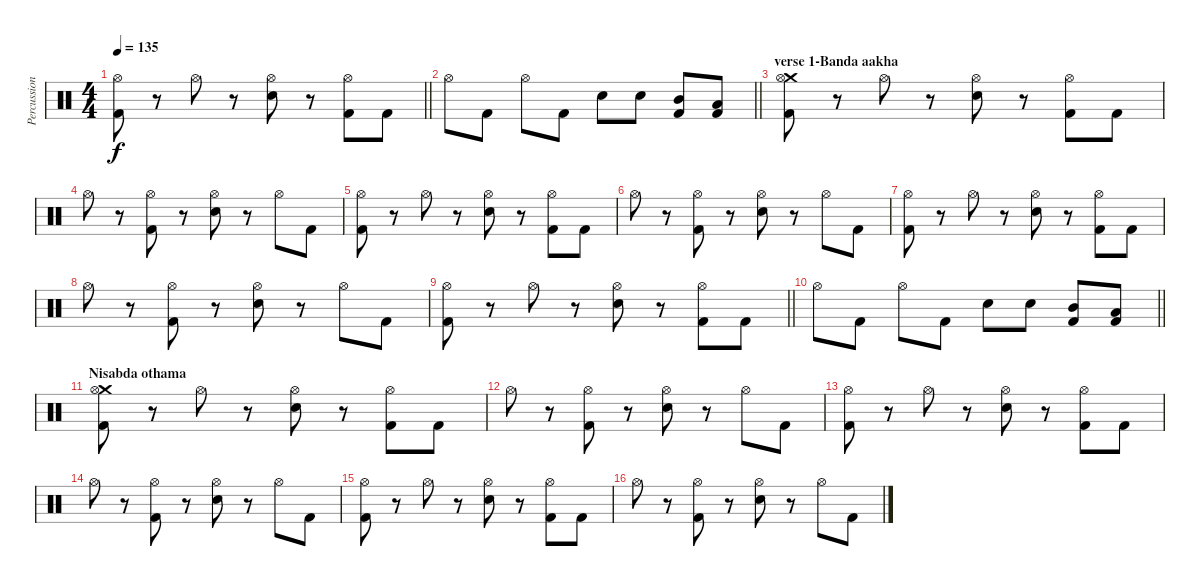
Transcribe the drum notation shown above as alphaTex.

\track ("Percussion" "Percussion") {instrument percussion}
\staff {score}
\articulation defaults
\ts (4 4)
\tempo 135
\clef neutral
\barLineRight lightlight
\ks c
("Hi-Hat (open)" "Kick (hit) 2").8{dy f} r.8 "Hi-Hat (open)".8 r.8 ("Hi-Hat (open)" "Electric Snare (hit)").8 r.8 ("Hi-Hat (open)" "Kick (hit) 2").8 "Kick (hit) 2".8 |
\section ("" "")
\barLineRight lightlight "Hi-Hat (open)".8 "Kick (hit) 2".8 "Hi-Hat (open)".8 "Kick (hit) 2".8 "Electric Snare (hit)".8 "Electric Snare (hit)".8
("Mid Tom (hit)" "Kick (hit) 2").8 ("Low Tom (hit)" "Kick (hit) 2").8 |
\section ("" "verse 1-Banda aakha")
("Crash medium (hit)" "Hi-Hat (open)" "Kick (hit) 2").8 r.8 "Hi-Hat (open)".8 r.8 ("Hi-Hat (open)" "Electric Snare (hit)").8 r.8 ("Hi-Hat (open)" "Kick (hit) 2").8 "Kick (hit) 2".8 |
"Hi-Hat (open)".8 r.8 ("Hi-Hat (open)" "Kick (hit) 2").8 r.8 ("Hi-Hat (open)" "Electric Snare (hit)").8 r.8 "Hi-Hat (open)".8 "Kick (hit) 2".8 |
("Hi-Hat (open)" "Kick (hit) 2").8 r.8 "Hi-Hat (open)".8 r.8 ("Hi-Hat (open)" "Electric Snare (hit)").8 r.8 ("Hi-Hat (open)" "Kick (hit) 2").8 "Kick (hit) 2".8 |
"Hi-Hat (open)".8 r.8 ("Hi-Hat (open)" "Kick (hit) 2").8 r.8 ("Hi-Hat (open)" "Electric Snare (hit)").8 r.8 "Hi-Hat (open)".8 "Kick (hit) 2".8 |
("Hi-Hat (open)" "Kick (hit) 2").8 r.8 "Hi-Hat (open)".8 r.8 ("Hi-Hat (open)" "Electric Snare (hit)").8 r.8 ("Hi-Hat (open)" "Kick (hit) 2").8 "Kick (hit) 2".8 |
"Hi-Hat (open)".8 r.8 ("Hi-Hat (open)" "Kick (hit) 2").8 r.8 ("Hi-Hat (open)" "Electric Snare (hit)").8 r.8 "Hi-Hat (open)".8 "Kick (hit) 2".8 |
\barLineRight lightlight
("Hi-Hat (open)" "Kick (hit) 2").8 r.8 "Hi-Hat (open)".8 r.8 ("Hi-Hat (open)" "Electric Snare (hit)").8 r.8 ("Hi-Hat (open)" "Kick (hit) 2").8 "Kick (hit) 2".8 |
\barLineRight lightlight "Hi-Hat (open)".8 "Kick (hit) 2".8 "Hi-Hat (open)".8 "Kick (hit) 2".8 "Electric Snare (hit)".8 "Electric Snare (hit)".8
("Mid Tom (hit)" "Kick (hit) 2").8 ("Low Tom (hit)" "Kick (hit) 2").8 |
\section ("" "Nisabda othama")
("Crash medium (hit)" "Hi-Hat (open)" "Kick (hit) 2").8 r.8 "Hi-Hat (open)".8 r.8 ("Hi-Hat (open)" "Electric Snare (hit)").8 r.8 ("Hi-Hat (open)" "Kick (hit) 2").8 "Kick (hit) 2".8 |
"Hi-Hat (open)".8 r.8 ("Hi-Hat (open)" "Kick (hit) 2").8 r.8 ("Hi-Hat (open)" "Electric Snare (hit)").8 r.8 "Hi-Hat (open)".8 "Kick (hit) 2".8 |
("Hi-Hat (open)" "Kick (hit) 2").8 r.8 "Hi-Hat (open)".8 r.8 ("Hi-Hat (open)" "Electric Snare (hit)").8 r.8 ("Hi-Hat (open)" "Kick (hit) 2").8 "Kick (hit) 2".8 |
"Hi-Hat (open)".8 r.8 ("Hi-Hat (open)" "Kick (hit) 2").8 r.8 ("Hi-Hat (open)" "Electric Snare (hit)").8 r.8 "Hi-Hat (open)".8 "Kick (hit) 2".8 |
("Hi-Hat (open)" "Kick (hit) 2").8 r.8 "Hi-Hat (open)".8 r.8 ("Hi-Hat (open)" "Electric Snare (hit)").8 r.8 ("Hi-Hat (open)" "Kick (hit) 2").8 "Kick (hit) 2".8 |
"Hi-Hat (open)".8 r.8 ("Hi-Hat (open)" "Kick (hit) 2").8 r.8 ("Hi-Hat (open)" "Electric Snare (hit)").8 r.8 "Hi-Hat (open)".8 "Kick (hit) 2".8
